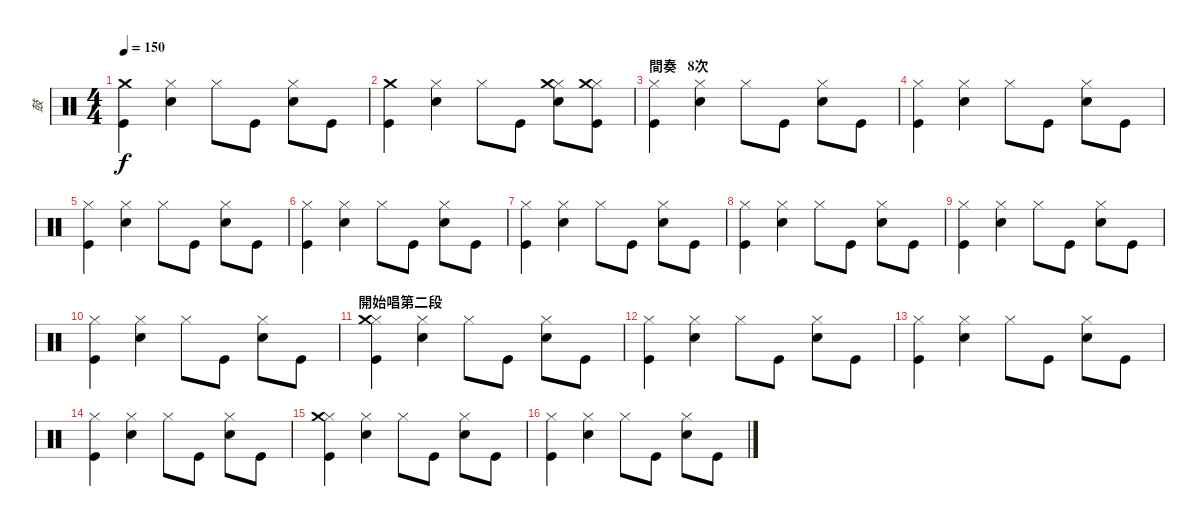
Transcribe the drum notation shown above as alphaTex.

\track ("鼓" "鼓") {instrument percussion}
\staff {score}
\articulation defaults
\ts (4 4)
\tempo 150
\clef neutral
\ks c
("Kick (hit)" "Crash medium (hit)").4{dy f} ("Snare (hit) 2" "Hi-Hat (closed)").4 "Hi-Hat (closed)".8 "Kick (hit)".8 ("Snare (hit) 2" "Hi-Hat (closed)").8 "Kick (hit)".8 |
("Kick (hit)" "Crash medium (hit)").4 ("Snare (hit) 2" "Hi-Hat (closed)").4 "Hi-Hat (closed)".8 "Kick (hit)".8 ("Snare (hit) 2" "Hi-Hat (closed)" "Crash medium (hit)").8 ("Kick (hit)" "Hi-Hat (closed)" "Crash medium (hit)").8 |
\section ("" "間奏   8次")
("Kick (hit)" "Hi-Hat (closed)").4 ("Snare (hit) 2" "Hi-Hat (closed)").4 "Hi-Hat (closed)".8 "Kick (hit)".8 ("Snare (hit) 2" "Hi-Hat (closed)").8 "Kick (hit)".8 |
("Kick (hit)" "Hi-Hat (closed)").4 ("Snare (hit) 2" "Hi-Hat (closed)").4 "Hi-Hat (closed)".8 "Kick (hit)".8 ("Snare (hit) 2" "Hi-Hat (closed)").8 "Kick (hit)".8 |
("Kick (hit)" "Hi-Hat (closed)").4 ("Snare (hit) 2" "Hi-Hat (closed)").4 "Hi-Hat (closed)".8 "Kick (hit)".8 ("Snare (hit) 2" "Hi-Hat (closed)").8 "Kick (hit)".8 |
("Kick (hit)" "Hi-Hat (closed)").4 ("Snare (hit) 2" "Hi-Hat (closed)").4 "Hi-Hat (closed)".8 "Kick (hit)".8 ("Snare (hit) 2" "Hi-Hat (closed)").8 "Kick (hit)".8 |
("Kick (hit)" "Hi-Hat (closed)").4 ("Snare (hit) 2" "Hi-Hat (closed)").4 "Hi-Hat (closed)".8 "Kick (hit)".8 ("Snare (hit) 2" "Hi-Hat (closed)").8 "Kick (hit)".8 |
("Kick (hit)" "Hi-Hat (closed)").4 ("Snare (hit) 2" "Hi-Hat (closed)").4 "Hi-Hat (closed)".8 "Kick (hit)".8 ("Snare (hit) 2" "Hi-Hat (closed)").8 "Kick (hit)".8 |
("Kick (hit)" "Hi-Hat (closed)").4 ("Snare (hit) 2" "Hi-Hat (closed)").4 "Hi-Hat (closed)".8 "Kick (hit)".8 ("Snare (hit) 2" "Hi-Hat (closed)").8 "Kick (hit)".8 |
("Kick (hit)" "Hi-Hat (closed)").4 ("Snare (hit) 2" "Hi-Hat (closed)").4 "Hi-Hat (closed)".8 "Kick (hit)".8 ("Snare (hit) 2" "Hi-Hat (closed)").8 "Kick (hit)".8 |
\section ("" "開始唱第二段")
("Kick (hit)" "Hi-Hat (closed)" "Crash medium (hit)").4 ("Snare (hit) 2" "Hi-Hat (closed)").4 "Hi-Hat (closed)".8 "Kick (hit)".8 ("Snare (hit) 2" "Hi-Hat (closed)").8 "Kick (hit)".8 |
("Kick (hit)" "Hi-Hat (closed)").4 ("Snare (hit) 2" "Hi-Hat (closed)").4 "Hi-Hat (closed)".8 "Kick (hit)".8 ("Snare (hit) 2" "Hi-Hat (closed)").8 "Kick (hit)".8 |
("Kick (hit)" "Hi-Hat (closed)").4 ("Snare (hit) 2" "Hi-Hat (closed)").4 "Hi-Hat (closed)".8 "Kick (hit)".8 ("Snare (hit) 2" "Hi-Hat (closed)").8 "Kick (hit)".8 |
("Kick (hit)" "Hi-Hat (closed)").4 ("Snare (hit) 2" "Hi-Hat (closed)").4 "Hi-Hat (closed)".8 "Kick (hit)".8 ("Snare (hit) 2" "Hi-Hat (closed)").8 "Kick (hit)".8 |
("Kick (hit)" "Hi-Hat (closed)" "Crash medium (hit)").4 ("Snare (hit) 2" "Hi-Hat (closed)").4 "Hi-Hat (closed)".8 "Kick (hit)".8 ("Snare (hit) 2" "Hi-Hat (closed)").8 "Kick (hit)".8 |
("Kick (hit)" "Hi-Hat (closed)").4 ("Snare (hit) 2" "Hi-Hat (closed)").4 "Hi-Hat (closed)".8 "Kick (hit)".8 ("Snare (hit) 2" "Hi-Hat (closed)").8 "Kick (hit)".8
